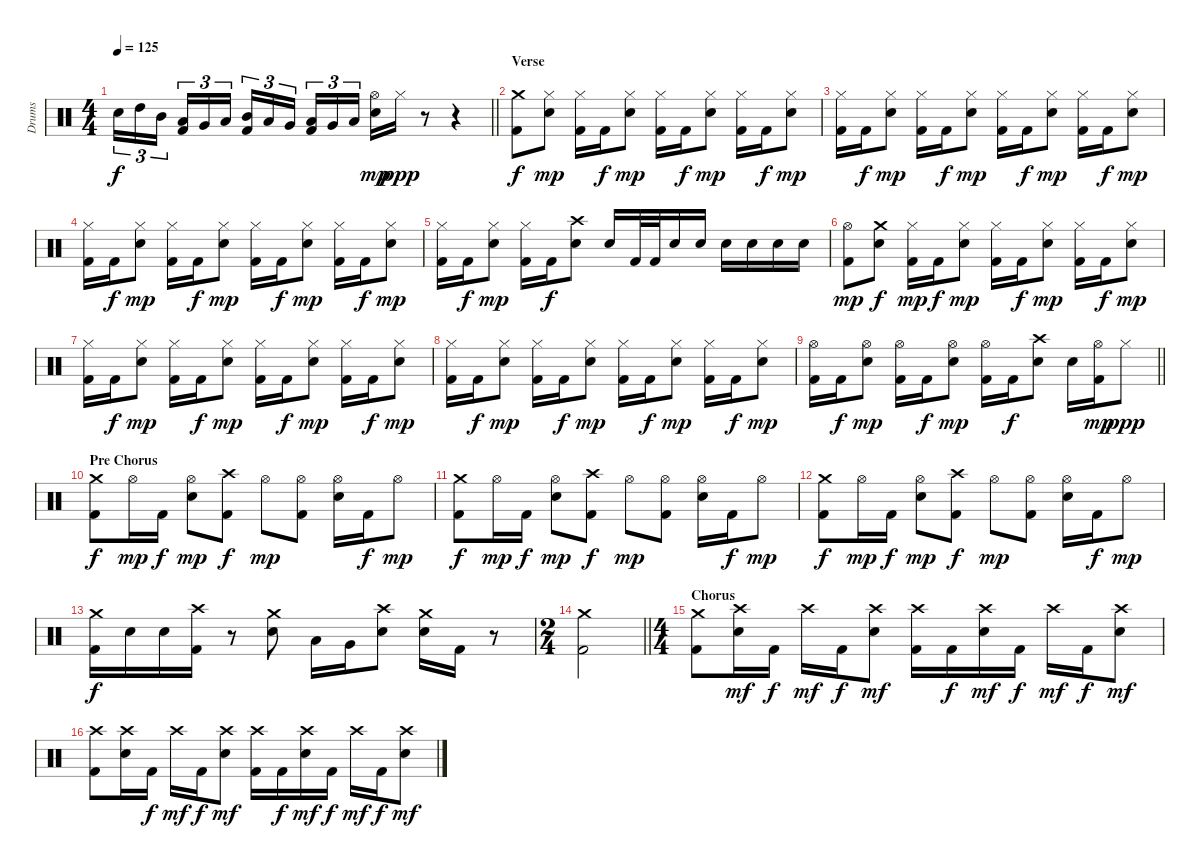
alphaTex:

\track ("Drums" "Drums") {instrument percussion}
\staff {score}
\articulation defaults
\ts (4 4)
\tempo 125
\clef neutral
\barLineRight lightlight
\ks c "Snare (hit) 2".16{tu (3 2) dy f} "High Tom (hit)".16{tu (3 2)} "Mid Tom (hit)".16{tu (3 2) beam splitsecondary}
("Low Tom (hit)" "Kick (hit) 2").16{tu (3 2)} "Very Low Tom (hit)".16{tu (3 2)} "Low Floor Tom (hit)".16{tu (3 2)} ("Mid Tom (hit)" "Kick (hit) 2").16{tu (3 2)} "Low Tom (hit)".16{tu (3 2)} "Very Low Tom (hit)".16{tu (3 2) beam splitsecondary} ("Low Tom (hit)" "Kick (hit) 2").16{tu (3 2)} "Very Low Tom (hit)".16{tu (3 2)} "Low Floor Tom (hit)".16{tu (3 2)} ("Hi-Hat (open)" "Snare (hit) 2").16{dy mp} "Hi-Hat (closed)".16{dy ppp} r.8 r.4 |
\section ("" "Verse")
("Crash medium (hit)" "Kick (hit) 2").8{dy f} ("Hi-Hat (closed)" "Snare (hit) 2").8{dy mp} ("Hi-Hat (closed)" "Kick (hit) 2").16 "Kick (hit) 2".16{dy f} ("Hi-Hat (closed)" "Snare (hit) 2").8{dy mp} ("Hi-Hat (closed)" "Kick (hit) 2").16 "Kick (hit) 2".16{dy f} ("Hi-Hat (closed)" "Snare (hit) 2").8{dy mp} ("Hi-Hat (closed)" "Kick (hit) 2").16 "Kick (hit) 2".16{dy f} ("Hi-Hat (closed)" "Snare (hit) 2").8{dy mp} |
("Hi-Hat (closed)" "Kick (hit) 2").16 "Kick (hit) 2".16{dy f} ("Hi-Hat (closed)" "Snare (hit) 2").8{dy mp} ("Hi-Hat (closed)" "Kick (hit) 2").16 "Kick (hit) 2".16{dy f} ("Hi-Hat (closed)" "Snare (hit) 2").8{dy mp} ("Hi-Hat (closed)" "Kick (hit) 2").16 "Kick (hit) 2".16{dy f} ("Hi-Hat (closed)" "Snare (hit) 2").8{dy mp} ("Hi-Hat (closed)" "Kick (hit) 2").16 "Kick (hit) 2".16{dy f} ("Hi-Hat (closed)" "Snare (hit) 2").8{dy mp} |
("Hi-Hat (closed)" "Kick (hit) 2").16 "Kick (hit) 2".16{dy f} ("Hi-Hat (closed)" "Snare (hit) 2").8{dy mp} ("Hi-Hat (closed)" "Kick (hit) 2").16 "Kick (hit) 2".16{dy f} ("Hi-Hat (closed)" "Snare (hit) 2").8{dy mp} ("Hi-Hat (closed)" "Kick (hit) 2").16 "Kick (hit) 2".16{dy f} ("Hi-Hat (closed)" "Snare (hit) 2").8{dy mp} ("Hi-Hat (closed)" "Kick (hit) 2").16 "Kick (hit) 2".16{dy f} ("Hi-Hat (closed)" "Snare (hit) 2").8{dy mp} |
("Hi-Hat (closed)" "Kick (hit) 2").16 "Kick (hit) 2".16{dy f} ("Hi-Hat (closed)" "Snare (hit) 2").8{dy mp} ("Hi-Hat (closed)" "Kick (hit) 2").16 "Kick (hit) 2".16{dy f} ("Crash high (hit)" "Snare (hit) 2").8 "Snare (hit) 2".16 "Kick (hit) 2".32 "Kick (hit) 2".32 "Snare (hit) 2".16 "Snare (hit) 2".16 "Snare (hit) 2".16 "Snare (hit) 2".16 "Snare (hit) 2".16 "Snare (hit) 2".16 |
("Hi-Hat (open)" "Kick (hit) 2").8{dy mp} ("Crash medium (hit)" "Snare (hit) 2").8{dy f} ("Hi-Hat (closed)" "Kick (hit) 2").16{dy mp} "Kick (hit) 2".16{dy f} ("Hi-Hat (closed)" "Snare (hit) 2").8{dy mp} ("Hi-Hat (closed)" "Kick (hit) 2").16 "Kick (hit) 2".16{dy f} ("Hi-Hat (closed)" "Snare (hit) 2").8{dy mp} ("Hi-Hat (closed)" "Kick (hit) 2").16 "Kick (hit) 2".16{dy f} ("Hi-Hat (closed)" "Snare (hit) 2").8{dy mp} |
("Hi-Hat (closed)" "Kick (hit) 2").16 "Kick (hit) 2".16{dy f} ("Hi-Hat (closed)" "Snare (hit) 2").8{dy mp} ("Hi-Hat (closed)" "Kick (hit) 2").16 "Kick (hit) 2".16{dy f} ("Hi-Hat (closed)" "Snare (hit) 2").8{dy mp} ("Hi-Hat (closed)" "Kick (hit) 2").16 "Kick (hit) 2".16{dy f} ("Hi-Hat (closed)" "Snare (hit) 2").8{dy mp} ("Hi-Hat (closed)" "Kick (hit) 2").16 "Kick (hit) 2".16{dy f} ("Hi-Hat (closed)" "Snare (hit) 2").8{dy mp} |
("Hi-Hat (closed)" "Kick (hit) 2").16 "Kick (hit) 2".16{dy f} ("Hi-Hat (closed)" "Snare (hit) 2").8{dy mp} ("Hi-Hat (closed)" "Kick (hit) 2").16 "Kick (hit) 2".16{dy f} ("Hi-Hat (closed)" "Snare (hit) 2").8{dy mp} ("Hi-Hat (closed)" "Kick (hit) 2").16 "Kick (hit) 2".16{dy f} ("Hi-Hat (closed)" "Snare (hit) 2").8{dy mp} ("Hi-Hat (closed)" "Kick (hit) 2").16 "Kick (hit) 2".16{dy f} ("Hi-Hat (closed)" "Snare (hit) 2").8{dy mp} |
\barLineRight lightlight
("Hi-Hat (open)" "Kick (hit) 2").16 "Kick (hit) 2".16{dy f} ("Hi-Hat (open)" "Snare (hit) 2").8{dy mp} ("Hi-Hat (open)" "Kick (hit) 2").16 "Kick (hit) 2".16{dy f} ("Hi-Hat (open)" "Snare (hit) 2").8{dy mp} ("Hi-Hat (open)" "Kick (hit) 2").16 "Kick (hit) 2".16{dy f} ("Crash high (hit)" "Snare (hit) 2").8 "Snare (hit) 2".16 ("Hi-Hat (open)" "Kick (hit) 2").16{dy mp} "Hi-Hat (closed)".8{dy ppp} |
\section ("" "Pre Chorus")
("Crash medium (hit)" "Kick (hit) 2").8{dy f} "Hi-Hat (open)".16{dy mp} "Kick (hit) 2".16{dy f} ("Hi-Hat (open)" "Snare (hit) 2").8{dy mp} ("Crash high (hit)" "Kick (hit) 2").8{dy f} "Hi-Hat (open)".8{dy mp} ("Hi-Hat (open)" "Kick (hit) 2").8 ("Hi-Hat (open)" "Snare (hit) 2").16 "Kick (hit) 2".16{dy f} "Hi-Hat (open)".8{dy mp} |
("Crash medium (hit)" "Kick (hit) 2").8{dy f} "Hi-Hat (open)".16{dy mp} "Kick (hit) 2".16{dy f} ("Hi-Hat (open)" "Snare (hit) 2").8{dy mp} ("Crash high (hit)" "Kick (hit) 2").8{dy f} "Hi-Hat (open)".8{dy mp} ("Hi-Hat (open)" "Kick (hit) 2").8 ("Hi-Hat (open)" "Snare (hit) 2").16 "Kick (hit) 2".16{dy f} "Hi-Hat (open)".8{dy mp} |
("Crash medium (hit)" "Kick (hit) 2").8{dy f} "Hi-Hat (open)".16{dy mp} "Kick (hit) 2".16{dy f} ("Hi-Hat (open)" "Snare (hit) 2").8{dy mp} ("Crash high (hit)" "Kick (hit) 2").8{dy f} "Hi-Hat (open)".8{dy mp} ("Hi-Hat (open)" "Kick (hit) 2").8 ("Hi-Hat (open)" "Snare (hit) 2").16 "Kick (hit) 2".16{dy f} "Hi-Hat (open)".8{dy mp} |
("Crash medium (hit)" "Kick (hit) 2").16{dy f} "Snare (hit) 2".16 "Snare (hit) 2".16 ("Crash high (hit)" "Kick (hit) 2").16 r.8 ("Crash medium (hit)" "Snare (hit) 2").8 "Low Tom (hit)".16 "Very Low Tom (hit)".16 ("Crash high (hit)" "Snare (hit) 2").8 ("Crash medium (hit)" "Snare (hit) 2").16 "Kick (hit) 2".16 r.8 |
\ts (2 4)
\barLineRight lightlight
("Crash medium (hit)" "Kick (hit) 2").2 |
\ts (4 4)
\section ("" "Chorus")
("Crash medium (hit)" "Kick (hit) 2").8 ("Crash high (hit)" "Snare (hit) 2").16{dy mf} "Kick (hit) 2".16{dy f} "Crash high (hit)".16{dy mf} "Kick (hit) 2".16{dy f} ("Crash high (hit)" "Snare (hit) 2").8{dy mf} ("Crash high (hit)" "Kick (hit) 2").16 "Kick (hit) 2".16{dy f} ("Crash high (hit)" "Snare (hit) 2").16{dy mf} "Kick (hit) 2".16{dy f} "Crash high (hit)".16{dy mf} "Kick (hit) 2".16{dy f} ("Crash high (hit)" "Snare (hit) 2").8{dy mf} |
("Crash high (hit)" "Kick (hit) 2").8 ("Crash high (hit)" "Snare (hit) 2").16 "Kick (hit) 2".16{dy f} "Crash high (hit)".16{dy mf} "Kick (hit) 2".16{dy f} ("Crash high (hit)" "Snare (hit) 2").8{dy mf} ("Crash high (hit)" "Kick (hit) 2").16 "Kick (hit) 2".16{dy f} ("Crash high (hit)" "Snare (hit) 2").16{dy mf} "Kick (hit) 2".16{dy f} "Crash high (hit)".16{dy mf} "Kick (hit) 2".16{dy f} ("Crash high (hit)" "Snare (hit) 2").8{dy mf}
